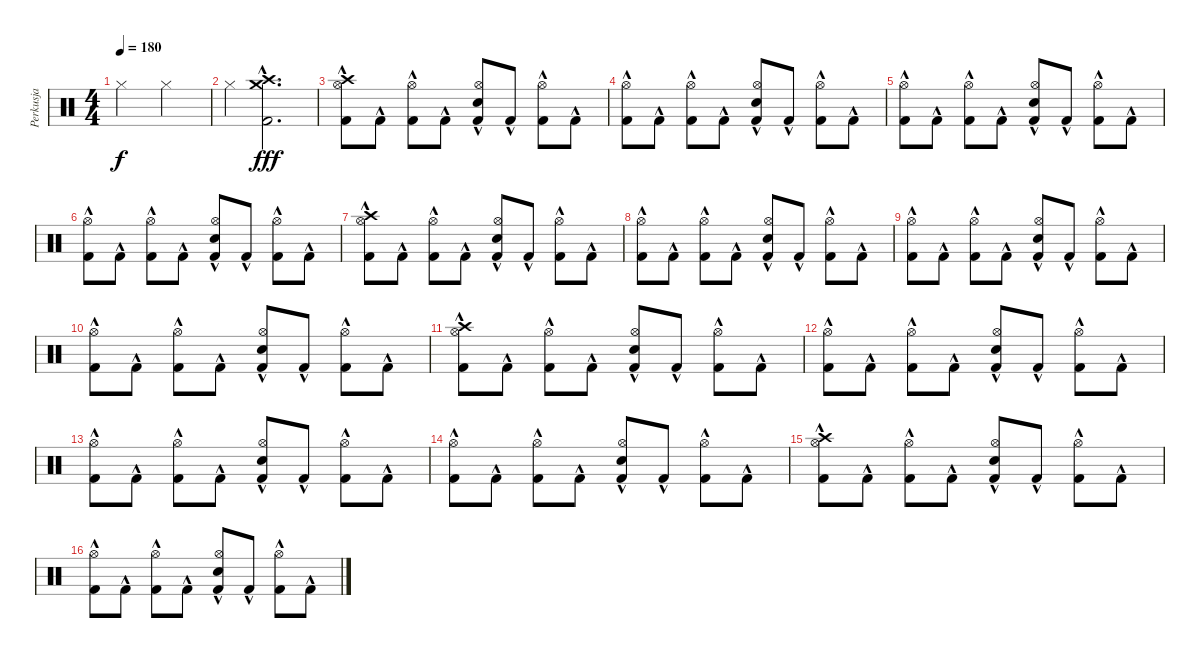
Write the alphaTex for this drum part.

\track ("Perkusja" "Perkusja") {instrument percussion}
\staff {score}
\articulation defaults
\ts (4 4)
\tempo 180
\clef neutral
\ks c "Hi-Hat (closed)".2{dy f} "Hi-Hat (closed)".2
|
"Hi-Hat (closed)".4 ("Crash high (hit)"{hac} "Crash medium (hit)"{hac} "Kick (hit) 2"{hac}).2{d dy fff} |
("Crash high (hit)" "Hi-Hat (open)" "Kick (hit) 2"{hac}).8 "Kick (hit) 2"{hac}.8 ("Hi-Hat (open)" "Kick (hit) 2"{hac}).8 "Kick (hit) 2"{hac}.8 ("Hi-Hat (open)" "Electric Snare (hit)"{hac} "Kick (hit) 2"{hac}).8 "Kick (hit) 2"{hac}.8 ("Hi-Hat (open)" "Kick (hit) 2"{hac}).8 "Kick (hit) 2"{hac}.8 |
("Hi-Hat (open)" "Kick (hit) 2"{hac}).8 "Kick (hit) 2"{hac}.8 ("Hi-Hat (open)" "Kick (hit) 2"{hac}).8 "Kick (hit) 2"{hac}.8 ("Hi-Hat (open)" "Electric Snare (hit)"{hac} "Kick (hit) 2"{hac}).8 "Kick (hit) 2"{hac}.8 ("Hi-Hat (open)" "Kick (hit) 2"{hac}).8 "Kick (hit) 2"{hac}.8 |
("Hi-Hat (open)" "Kick (hit) 2"{hac}).8 "Kick (hit) 2"{hac}.8 ("Hi-Hat (open)" "Kick (hit) 2"{hac}).8 "Kick (hit) 2"{hac}.8 ("Hi-Hat (open)" "Electric Snare (hit)"{hac} "Kick (hit) 2"{hac}).8 "Kick (hit) 2"{hac}.8 ("Hi-Hat (open)" "Kick (hit) 2"{hac}).8 "Kick (hit) 2"{hac}.8 |
("Hi-Hat (open)" "Kick (hit) 2"{hac}).8 "Kick (hit) 2"{hac}.8 ("Hi-Hat (open)" "Kick (hit) 2"{hac}).8 "Kick (hit) 2"{hac}.8 ("Hi-Hat (open)" "Electric Snare (hit)"{hac} "Kick (hit) 2"{hac}).8 "Kick (hit) 2"{hac}.8 ("Hi-Hat (open)" "Kick (hit) 2"{hac}).8 "Kick (hit) 2"{hac}.8 |
("Crash high (hit)" "Hi-Hat (open)" "Kick (hit) 2"{hac}).8 "Kick (hit) 2"{hac}.8 ("Hi-Hat (open)" "Kick (hit) 2"{hac}).8 "Kick (hit) 2"{hac}.8 ("Hi-Hat (open)" "Electric Snare (hit)"{hac} "Kick (hit) 2"{hac}).8 "Kick (hit) 2"{hac}.8 ("Hi-Hat (open)" "Kick (hit) 2"{hac}).8 "Kick (hit) 2"{hac}.8 |
("Hi-Hat (open)" "Kick (hit) 2"{hac}).8 "Kick (hit) 2"{hac}.8 ("Hi-Hat (open)" "Kick (hit) 2"{hac}).8 "Kick (hit) 2"{hac}.8 ("Hi-Hat (open)" "Electric Snare (hit)"{hac} "Kick (hit) 2"{hac}).8 "Kick (hit) 2"{hac}.8 ("Hi-Hat (open)" "Kick (hit) 2"{hac}).8 "Kick (hit) 2"{hac}.8 |
("Hi-Hat (open)" "Kick (hit) 2"{hac}).8 "Kick (hit) 2"{hac}.8 ("Hi-Hat (open)" "Kick (hit) 2"{hac}).8 "Kick (hit) 2"{hac}.8 ("Hi-Hat (open)" "Electric Snare (hit)"{hac} "Kick (hit) 2"{hac}).8 "Kick (hit) 2"{hac}.8 ("Hi-Hat (open)" "Kick (hit) 2"{hac}).8 "Kick (hit) 2"{hac}.8 |
("Hi-Hat (open)" "Kick (hit) 2"{hac}).8 "Kick (hit) 2"{hac}.8 ("Hi-Hat (open)" "Kick (hit) 2"{hac}).8 "Kick (hit) 2"{hac}.8 ("Hi-Hat (open)" "Electric Snare (hit)"{hac} "Kick (hit) 2"{hac}).8 "Kick (hit) 2"{hac}.8 ("Hi-Hat (open)" "Kick (hit) 2"{hac}).8 "Kick (hit) 2"{hac}.8 |
("Crash high (hit)" "Hi-Hat (open)" "Kick (hit) 2"{hac}).8 "Kick (hit) 2"{hac}.8 ("Hi-Hat (open)" "Kick (hit) 2"{hac}).8 "Kick (hit) 2"{hac}.8 ("Hi-Hat (open)" "Electric Snare (hit)"{hac} "Kick (hit) 2"{hac}).8 "Kick (hit) 2"{hac}.8 ("Hi-Hat (open)" "Kick (hit) 2"{hac}).8 "Kick (hit) 2"{hac}.8 |
("Hi-Hat (open)" "Kick (hit) 2"{hac}).8 "Kick (hit) 2"{hac}.8 ("Hi-Hat (open)" "Kick (hit) 2"{hac}).8 "Kick (hit) 2"{hac}.8 ("Hi-Hat (open)" "Electric Snare (hit)"{hac} "Kick (hit) 2"{hac}).8 "Kick (hit) 2"{hac}.8 ("Hi-Hat (open)" "Kick (hit) 2"{hac}).8 "Kick (hit) 2"{hac}.8 |
("Hi-Hat (open)" "Kick (hit) 2"{hac}).8 "Kick (hit) 2"{hac}.8 ("Hi-Hat (open)" "Kick (hit) 2"{hac}).8 "Kick (hit) 2"{hac}.8 ("Hi-Hat (open)" "Electric Snare (hit)"{hac} "Kick (hit) 2"{hac}).8 "Kick (hit) 2"{hac}.8 ("Hi-Hat (open)" "Kick (hit) 2"{hac}).8 "Kick (hit) 2"{hac}.8 |
("Hi-Hat (open)" "Kick (hit) 2"{hac}).8 "Kick (hit) 2"{hac}.8 ("Hi-Hat (open)" "Kick (hit) 2"{hac}).8 "Kick (hit) 2"{hac}.8 ("Hi-Hat (open)" "Electric Snare (hit)"{hac} "Kick (hit) 2"{hac}).8 "Kick (hit) 2"{hac}.8 ("Hi-Hat (open)" "Kick (hit) 2"{hac}).8 "Kick (hit) 2"{hac}.8 |
("Crash high (hit)" "Hi-Hat (open)" "Kick (hit) 2"{hac}).8 "Kick (hit) 2"{hac}.8 ("Hi-Hat (open)" "Kick (hit) 2"{hac}).8 "Kick (hit) 2"{hac}.8 ("Hi-Hat (open)" "Electric Snare (hit)"{hac} "Kick (hit) 2"{hac}).8 "Kick (hit) 2"{hac}.8 ("Hi-Hat (open)" "Kick (hit) 2"{hac}).8 "Kick (hit) 2"{hac}.8 |
("Hi-Hat (open)" "Kick (hit) 2"{hac}).8 "Kick (hit) 2"{hac}.8 ("Hi-Hat (open)" "Kick (hit) 2"{hac}).8 "Kick (hit) 2"{hac}.8 ("Hi-Hat (open)" "Electric Snare (hit)"{hac} "Kick (hit) 2"{hac}).8 "Kick (hit) 2"{hac}.8 ("Hi-Hat (open)" "Kick (hit) 2"{hac}).8 "Kick (hit) 2"{hac}.8
